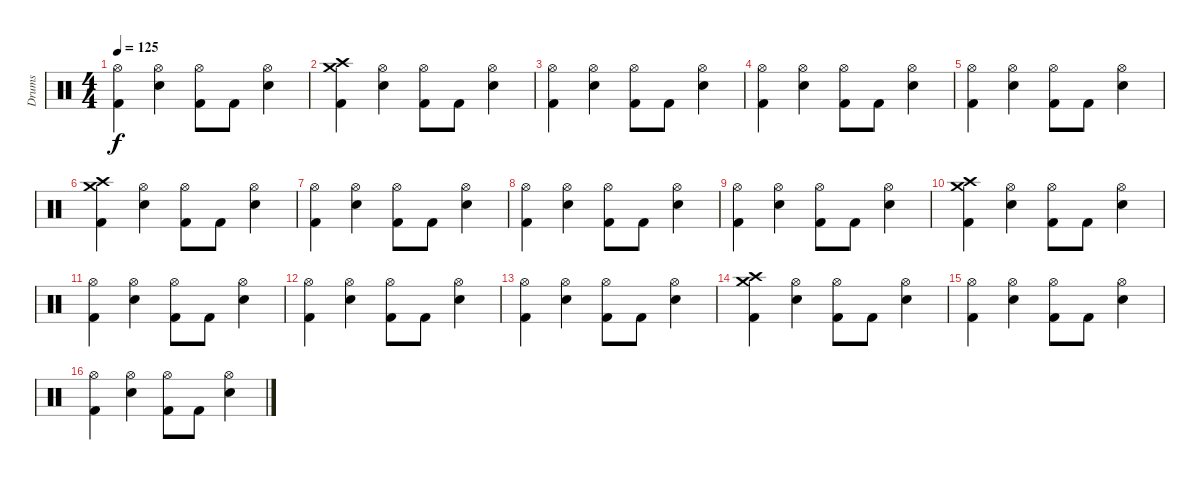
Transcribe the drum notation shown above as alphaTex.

\track ("Drums" "Drums") {instrument percussion}
\staff {score}
\articulation defaults
\ts (4 4)
\tempo 125
\clef neutral
\ks c
("Hi-Hat (open)" "Kick (hit) 2").4{dy f} ("Hi-Hat (open)" "Electric Snare (hit)").4 ("Hi-Hat (open)" "Kick (hit) 2").8 "Kick (hit) 2".8 ("Hi-Hat (open)" "Electric Snare (hit)").4 |
("Crash medium (hit)" "Crash high (hit)" "Kick (hit) 2").4 ("Hi-Hat (open)" "Electric Snare (hit)").4 ("Hi-Hat (open)" "Kick (hit) 2").8 "Kick (hit) 2".8 ("Hi-Hat (open)" "Electric Snare (hit)").4 |
("Hi-Hat (open)" "Kick (hit) 2").4 ("Hi-Hat (open)" "Electric Snare (hit)").4 ("Hi-Hat (open)" "Kick (hit) 2").8 "Kick (hit) 2".8 ("Hi-Hat (open)" "Electric Snare (hit)").4 |
("Hi-Hat (open)" "Kick (hit) 2").4 ("Hi-Hat (open)" "Electric Snare (hit)").4 ("Hi-Hat (open)" "Kick (hit) 2").8 "Kick (hit) 2".8 ("Hi-Hat (open)" "Electric Snare (hit)").4 |
("Hi-Hat (open)" "Kick (hit) 2").4 ("Hi-Hat (open)" "Electric Snare (hit)").4 ("Hi-Hat (open)" "Kick (hit) 2").8 "Kick (hit) 2".8 ("Hi-Hat (open)" "Electric Snare (hit)").4 |
("Crash medium (hit)" "Crash high (hit)" "Kick (hit) 2").4 ("Hi-Hat (open)" "Electric Snare (hit)").4 ("Hi-Hat (open)" "Kick (hit) 2").8 "Kick (hit) 2".8 ("Hi-Hat (open)" "Electric Snare (hit)").4 |
("Hi-Hat (open)" "Kick (hit) 2").4 ("Hi-Hat (open)" "Electric Snare (hit)").4 ("Hi-Hat (open)" "Kick (hit) 2").8 "Kick (hit) 2".8 ("Hi-Hat (open)" "Electric Snare (hit)").4 |
("Hi-Hat (open)" "Kick (hit) 2").4 ("Hi-Hat (open)" "Electric Snare (hit)").4 ("Hi-Hat (open)" "Kick (hit) 2").8 "Kick (hit) 2".8 ("Hi-Hat (open)" "Electric Snare (hit)").4 |
("Hi-Hat (open)" "Kick (hit) 2").4 ("Hi-Hat (open)" "Electric Snare (hit)").4 ("Hi-Hat (open)" "Kick (hit) 2").8 "Kick (hit) 2".8 ("Hi-Hat (open)" "Electric Snare (hit)").4 |
("Crash medium (hit)" "Crash high (hit)" "Kick (hit) 2").4 ("Hi-Hat (open)" "Electric Snare (hit)").4 ("Hi-Hat (open)" "Kick (hit) 2").8 "Kick (hit) 2".8 ("Hi-Hat (open)" "Electric Snare (hit)").4 |
("Hi-Hat (open)" "Kick (hit) 2").4 ("Hi-Hat (open)" "Electric Snare (hit)").4 ("Hi-Hat (open)" "Kick (hit) 2").8 "Kick (hit) 2".8 ("Hi-Hat (open)" "Electric Snare (hit)").4 |
("Hi-Hat (open)" "Kick (hit) 2").4 ("Hi-Hat (open)" "Electric Snare (hit)").4 ("Hi-Hat (open)" "Kick (hit) 2").8 "Kick (hit) 2".8 ("Hi-Hat (open)" "Electric Snare (hit)").4 |
("Hi-Hat (open)" "Kick (hit) 2").4 ("Hi-Hat (open)" "Electric Snare (hit)").4 ("Hi-Hat (open)" "Kick (hit) 2").8 "Kick (hit) 2".8 ("Hi-Hat (open)" "Electric Snare (hit)").4 |
("Crash medium (hit)" "Crash high (hit)" "Kick (hit) 2").4 ("Hi-Hat (open)" "Electric Snare (hit)").4 ("Hi-Hat (open)" "Kick (hit) 2").8 "Kick (hit) 2".8 ("Hi-Hat (open)" "Electric Snare (hit)").4 |
("Hi-Hat (open)" "Kick (hit) 2").4 ("Hi-Hat (open)" "Electric Snare (hit)").4 ("Hi-Hat (open)" "Kick (hit) 2").8 "Kick (hit) 2".8 ("Hi-Hat (open)" "Electric Snare (hit)").4 |
("Hi-Hat (open)" "Kick (hit) 2").4 ("Hi-Hat (open)" "Electric Snare (hit)").4 ("Hi-Hat (open)" "Kick (hit) 2").8 "Kick (hit) 2".8 ("Hi-Hat (open)" "Electric Snare (hit)").4
